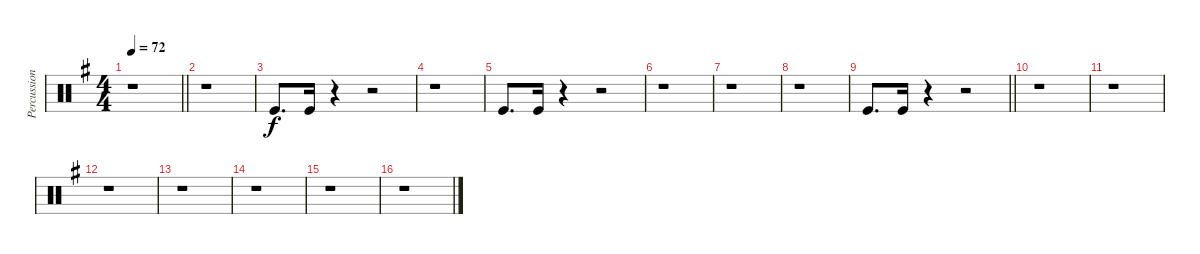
\track ("Percussions" "Percussion") {instrument percussion}
\staff {score}
\articulation defaults
\ts (4 4)
\tempo 72
\clef neutral
\barLineRight lightlight
\ks eminor
r.1{dy f} |
r.1 |
"Kick (hit)".8{d} "Kick (hit)".16 r.4 r.2 |
r.1 |
"Kick (hit)".8{d} "Kick (hit)".16 r.4 r.2 |
r.1 |
r.1 |
r.1 |
\barLineRight lightlight "Kick (hit)".8{d} "Kick (hit)".16
r.4 r.2 |
r.1 |
r.1 |
r.1 |
r.1 |
r.1 |
r.1 |
r.1
